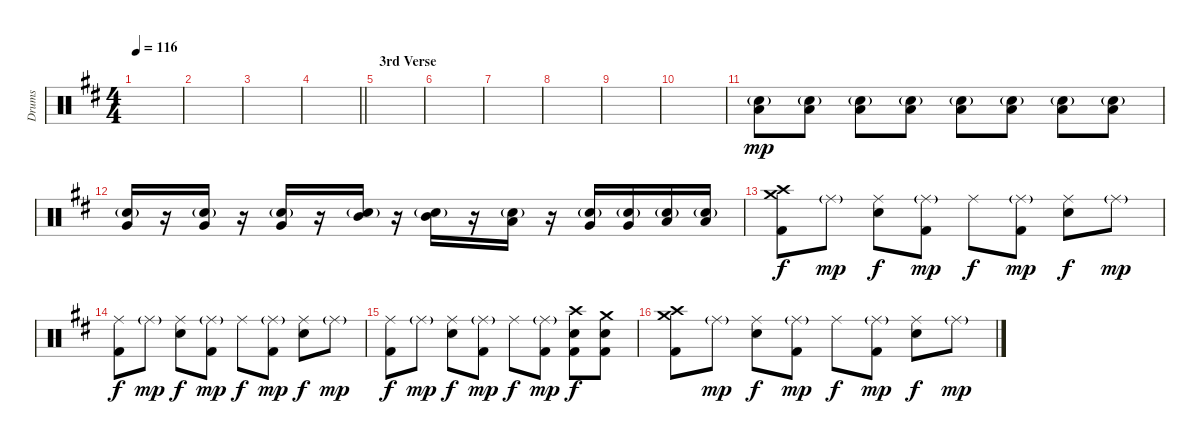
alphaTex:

\track ("Drums" "Drums") {instrument percussion}
\staff {score}
\articulation defaults
\ts (4 4)
\tempo 116
\clef neutral
\ks d
|
|
|
\barLineRight lightlight
|
\section ("" "3rd Verse")
|
|
|
|
|
|
("Low Floor Tom (hit)" "Electric Snare (hit)"{g}).8{dy mp} ("Low Floor Tom (hit)" "Electric Snare (hit)"{g}).8 ("Low Floor Tom (hit)" "Electric Snare (hit)"{g}).8 ("Low Floor Tom (hit)" "Electric Snare (hit)"{g}).8 ("Low Floor Tom (hit)" "Electric Snare (hit)"{g}).8 ("Low Floor Tom (hit)" "Electric Snare (hit)"{g}).8 ("Low Floor Tom (hit)" "Electric Snare (hit)"{g}).8 ("Low Floor Tom (hit)" "Electric Snare (hit)"{g}).8 |
("Very Low Tom (hit)" "Electric Snare (hit)"{g}).16 r.16 ("Very Low Tom (hit)" "Electric Snare (hit)"{g}).16 r.16 ("Very Low Tom (hit)" "Electric Snare (hit)"{g}).16 r.16 ("Mid Tom (hit)" "Electric Snare (hit)"{g}).16 r.16 ("Mid Tom (hit)" "Electric Snare (hit)"{g}).16 r.16 ("Low Tom (hit)" "Electric Snare (hit)"{g}).16 r.16 ("Very Low Tom (hit)" "Electric Snare (hit)"{g}).16 ("Very Low Tom (hit)" "Electric Snare (hit)"{g}).16 ("Low Floor Tom (hit)" "Electric Snare (hit)"{g}).16 ("Low Floor Tom (hit)" "Electric Snare (hit)"{g}).16 |
("Crash high (hit)" "Crash medium (hit)" "Kick (hit) 2").8{dy f} "Ride (middle)"{g}.8{dy mp} ("Ride (middle)" "Snare (hit) 2").8{dy f} ("Ride (middle)"{g} "Kick (hit) 2").8{dy mp} "Ride (middle)".8{dy f} ("Ride (middle)"{g} "Kick (hit) 2").8{dy mp} ("Ride (middle)" "Snare (hit) 2").8{dy f} "Ride (middle)"{g}.8{dy mp} |
("Ride (middle)" "Kick (hit) 2").8{dy f} "Ride (middle)"{g}.8{dy mp} ("Ride (middle)" "Snare (hit) 2").8{dy f} ("Ride (middle)"{g} "Kick (hit) 2").8{dy mp} "Ride (middle)".8{dy f} ("Ride (middle)"{g} "Kick (hit) 2").8{dy mp} ("Ride (middle)" "Snare (hit) 2").8{dy f} "Ride (middle)"{g}.8{dy mp} |
("Ride (middle)" "Kick (hit) 2").8{dy f} "Ride (middle)"{g}.8{dy mp} ("Ride (middle)" "Snare (hit) 2").8{dy f} ("Ride (middle)"{g} "Kick (hit) 2").8{dy mp} "Ride (middle)".8{dy f} ("Ride (middle)"{g} "Kick (hit) 2").8{dy mp} ("Crash high (hit)" "Snare (hit) 2" "Kick (hit) 2").8{dy f} ("Crash medium (hit)" "Snare (hit) 2" "Kick (hit) 2").8 |
("Crash high (hit)" "Crash medium (hit)" "Kick (hit) 2").8 "Ride (middle)"{g}.8{dy mp} ("Ride (middle)" "Snare (hit) 2").8{dy f} ("Ride (middle)"{g} "Kick (hit) 2").8{dy mp} "Ride (middle)".8{dy f} ("Ride (middle)"{g} "Kick (hit) 2").8{dy mp} ("Ride (middle)" "Snare (hit) 2").8{dy f} "Ride (middle)"{g}.8{dy mp}
